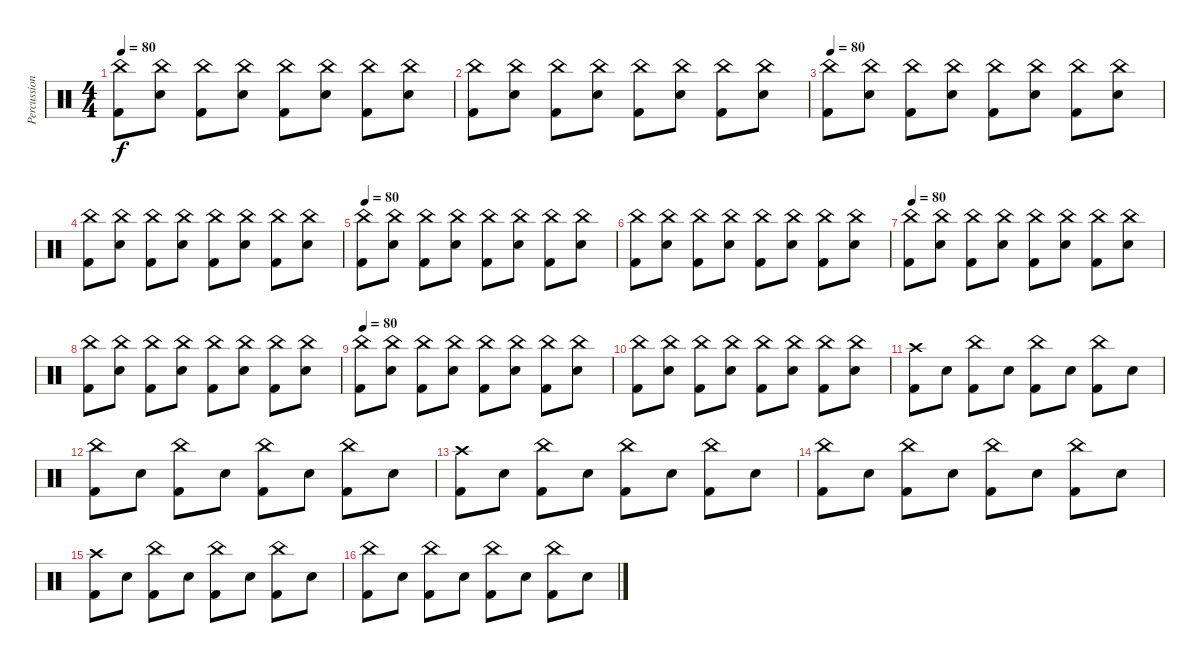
\track ("Percussion" "Percussion") {instrument percussion}
\staff {score}
\articulation defaults
\ts (4 4)
\tempo 80
\clef neutral
\ks c
("China (hit)" "Kick (hit) 2").8{dy f} ("China (hit)" "Snare (hit) 2").8 ("China (hit)" "Kick (hit) 2").8 ("China (hit)" "Snare (hit) 2").8 ("China (hit)" "Kick (hit) 2").8 ("China (hit)" "Snare (hit) 2").8 ("China (hit)" "Kick (hit) 2").8 ("China (hit)" "Snare (hit) 2").8 |
("China (hit)" "Kick (hit) 2").8 ("China (hit)" "Snare (hit) 2").8 ("China (hit)" "Kick (hit) 2").8 ("China (hit)" "Snare (hit) 2").8 ("China (hit)" "Kick (hit) 2").8 ("China (hit)" "Snare (hit) 2").8 ("China (hit)" "Kick (hit) 2").8 ("China (hit)" "Snare (hit) 2").8 |
\tempo 80
("China (hit)" "Kick (hit) 2").8 ("China (hit)" "Snare (hit) 2").8 ("China (hit)" "Kick (hit) 2").8 ("China (hit)" "Snare (hit) 2").8 ("China (hit)" "Kick (hit) 2").8 ("China (hit)" "Snare (hit) 2").8 ("China (hit)" "Kick (hit) 2").8 ("China (hit)" "Snare (hit) 2").8 |
("China (hit)" "Kick (hit) 2").8 ("China (hit)" "Snare (hit) 2").8 ("China (hit)" "Kick (hit) 2").8 ("China (hit)" "Snare (hit) 2").8 ("China (hit)" "Kick (hit) 2").8 ("China (hit)" "Snare (hit) 2").8 ("China (hit)" "Kick (hit) 2").8 ("China (hit)" "Snare (hit) 2").8 |
\tempo 80
("China (hit)" "Kick (hit) 2").8 ("China (hit)" "Snare (hit) 2").8 ("China (hit)" "Kick (hit) 2").8 ("China (hit)" "Snare (hit) 2").8 ("China (hit)" "Kick (hit) 2").8 ("China (hit)" "Snare (hit) 2").8 ("China (hit)" "Kick (hit) 2").8 ("China (hit)" "Snare (hit) 2").8 |
("China (hit)" "Kick (hit) 2").8 ("China (hit)" "Snare (hit) 2").8 ("China (hit)" "Kick (hit) 2").8 ("China (hit)" "Snare (hit) 2").8 ("China (hit)" "Kick (hit) 2").8 ("China (hit)" "Snare (hit) 2").8 ("China (hit)" "Kick (hit) 2").8 ("China (hit)" "Snare (hit) 2").8 |
\tempo 80
("China (hit)" "Kick (hit) 2").8 ("China (hit)" "Snare (hit) 2").8 ("China (hit)" "Kick (hit) 2").8 ("China (hit)" "Snare (hit) 2").8 ("China (hit)" "Kick (hit) 2").8 ("China (hit)" "Snare (hit) 2").8 ("China (hit)" "Kick (hit) 2").8 ("China (hit)" "Snare (hit) 2").8 |
("China (hit)" "Kick (hit) 2").8 ("China (hit)" "Snare (hit) 2").8 ("China (hit)" "Kick (hit) 2").8 ("China (hit)" "Snare (hit) 2").8 ("China (hit)" "Kick (hit) 2").8 ("China (hit)" "Snare (hit) 2").8 ("China (hit)" "Kick (hit) 2").8 ("China (hit)" "Snare (hit) 2").8 |
\tempo 80
("China (hit)" "Kick (hit) 2").8 ("China (hit)" "Snare (hit) 2").8 ("China (hit)" "Kick (hit) 2").8 ("China (hit)" "Snare (hit) 2").8 ("China (hit)" "Kick (hit) 2").8 ("China (hit)" "Snare (hit) 2").8 ("China (hit)" "Kick (hit) 2").8 ("China (hit)" "Snare (hit) 2").8 |
("China (hit)" "Kick (hit) 2").8 ("China (hit)" "Snare (hit) 2").8 ("China (hit)" "Kick (hit) 2").8 ("China (hit)" "Snare (hit) 2").8 ("China (hit)" "Kick (hit) 2").8 ("China (hit)" "Snare (hit) 2").8 ("China (hit)" "Kick (hit) 2").8 ("China (hit)" "Snare (hit) 2").8 |
("Crash high (hit)" "Kick (hit) 2").8 "Snare (hit) 2".8 ("China (hit)" "Kick (hit) 2").8 "Snare (hit) 2".8 ("China (hit)" "Kick (hit) 2").8 "Snare (hit) 2".8 ("China (hit)" "Kick (hit) 2").8 "Snare (hit) 2".8 |
("China (hit)" "Kick (hit) 2").8 "Snare (hit) 2".8 ("China (hit)" "Kick (hit) 2").8 "Snare (hit) 2".8 ("China (hit)" "Kick (hit) 2").8 "Snare (hit) 2".8 ("China (hit)" "Kick (hit) 2").8 "Snare (hit) 2".8 |
("Crash high (hit)" "Kick (hit) 2").8 "Snare (hit) 2".8 ("China (hit)" "Kick (hit) 2").8 "Snare (hit) 2".8 ("China (hit)" "Kick (hit) 2").8 "Snare (hit) 2".8 ("China (hit)" "Kick (hit) 2").8 "Snare (hit) 2".8 |
("China (hit)" "Kick (hit) 2").8 "Snare (hit) 2".8 ("China (hit)" "Kick (hit) 2").8 "Snare (hit) 2".8 ("China (hit)" "Kick (hit) 2").8 "Snare (hit) 2".8 ("China (hit)" "Kick (hit) 2").8 "Snare (hit) 2".8 |
("Crash high (hit)" "Kick (hit) 2").8 "Snare (hit) 2".8 ("China (hit)" "Kick (hit) 2").8 "Snare (hit) 2".8 ("China (hit)" "Kick (hit) 2").8 "Snare (hit) 2".8 ("China (hit)" "Kick (hit) 2").8 "Snare (hit) 2".8 |
("China (hit)" "Kick (hit) 2").8 "Snare (hit) 2".8 ("China (hit)" "Kick (hit) 2").8 "Snare (hit) 2".8 ("China (hit)" "Kick (hit) 2").8 "Snare (hit) 2".8 ("China (hit)" "Kick (hit) 2").8 "Snare (hit) 2".8
